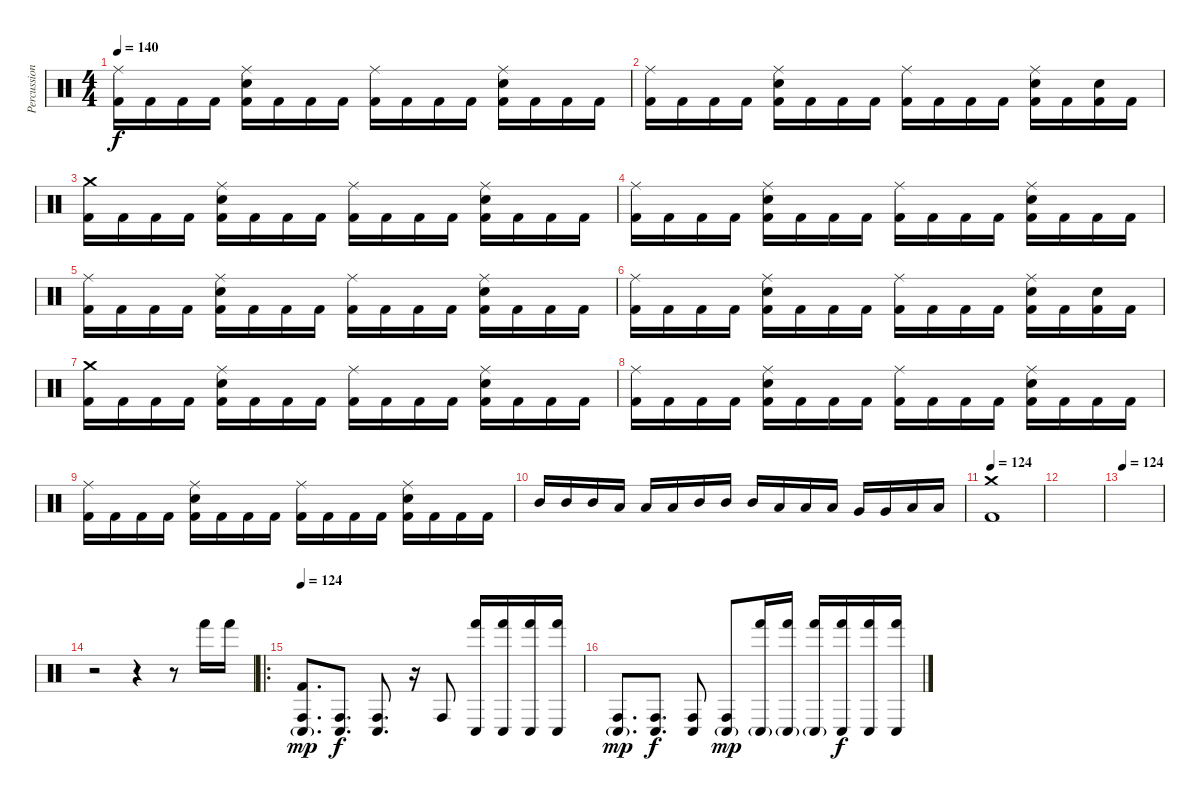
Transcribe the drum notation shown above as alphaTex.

\track ("Percussion" "Percussion") {instrument percussion}
\staff {score}
\articulation defaults
\ts (4 4)
\tempo 140
\clef neutral
\ks c
("Ride (middle)" "Kick (hit) 2").16{dy f} "Kick (hit) 2".16 "Kick (hit) 2".16 "Kick (hit) 2".16 ("Ride (middle)" "Electric Snare (hit)" "Kick (hit) 2").16 "Kick (hit) 2".16 "Kick (hit) 2".16 "Kick (hit) 2".16 ("Ride (middle)" "Kick (hit) 2").16 "Kick (hit) 2".16 "Kick (hit) 2".16 "Kick (hit) 2".16 ("Ride (middle)" "Electric Snare (hit)" "Kick (hit) 2").16 "Kick (hit) 2".16 "Kick (hit) 2".16 "Kick (hit) 2".16 |
("Ride (middle)" "Kick (hit) 2").16 "Kick (hit) 2".16 "Kick (hit) 2".16 "Kick (hit) 2".16 ("Ride (middle)" "Electric Snare (hit)" "Kick (hit) 2").16 "Kick (hit) 2".16 "Kick (hit) 2".16 "Kick (hit) 2".16 ("Ride (middle)" "Kick (hit) 2").16 "Kick (hit) 2".16 "Kick (hit) 2".16 "Kick (hit) 2".16 ("Ride (middle)" "Electric Snare (hit)" "Kick (hit) 2").16 "Kick (hit) 2".16 ("Electric Snare (hit)" "Kick (hit) 2").16 "Kick (hit) 2".16 |
("Crash medium (hit)" "Kick (hit) 2").16 "Kick (hit) 2".16 "Kick (hit) 2".16 "Kick (hit) 2".16 ("Ride (middle)" "Electric Snare (hit)" "Kick (hit) 2").16 "Kick (hit) 2".16 "Kick (hit) 2".16 "Kick (hit) 2".16 ("Ride (middle)" "Kick (hit) 2").16 "Kick (hit) 2".16 "Kick (hit) 2".16 "Kick (hit) 2".16 ("Ride (middle)" "Electric Snare (hit)" "Kick (hit) 2").16 "Kick (hit) 2".16 "Kick (hit) 2".16 "Kick (hit) 2".16 |
("Ride (middle)" "Kick (hit) 2").16 "Kick (hit) 2".16 "Kick (hit) 2".16 "Kick (hit) 2".16 ("Ride (middle)" "Electric Snare (hit)" "Kick (hit) 2").16 "Kick (hit) 2".16 "Kick (hit) 2".16 "Kick (hit) 2".16 ("Ride (middle)" "Kick (hit) 2").16 "Kick (hit) 2".16 "Kick (hit) 2".16 "Kick (hit) 2".16 ("Ride (middle)" "Electric Snare (hit)" "Kick (hit) 2").16 "Kick (hit) 2".16 "Kick (hit) 2".16 "Kick (hit) 2".16 |
("Ride (middle)" "Kick (hit) 2").16 "Kick (hit) 2".16 "Kick (hit) 2".16 "Kick (hit) 2".16 ("Ride (middle)" "Electric Snare (hit)" "Kick (hit) 2").16 "Kick (hit) 2".16 "Kick (hit) 2".16 "Kick (hit) 2".16 ("Ride (middle)" "Kick (hit) 2").16 "Kick (hit) 2".16 "Kick (hit) 2".16 "Kick (hit) 2".16 ("Ride (middle)" "Electric Snare (hit)" "Kick (hit) 2").16 "Kick (hit) 2".16 "Kick (hit) 2".16 "Kick (hit) 2".16 |
("Ride (middle)" "Kick (hit) 2").16 "Kick (hit) 2".16 "Kick (hit) 2".16 "Kick (hit) 2".16 ("Ride (middle)" "Electric Snare (hit)" "Kick (hit) 2").16 "Kick (hit) 2".16 "Kick (hit) 2".16 "Kick (hit) 2".16 ("Ride (middle)" "Kick (hit) 2").16 "Kick (hit) 2".16 "Kick (hit) 2".16 "Kick (hit) 2".16 ("Ride (middle)" "Electric Snare (hit)" "Kick (hit) 2").16 "Kick (hit) 2".16 ("Electric Snare (hit)" "Kick (hit) 2").16 "Kick (hit) 2".16 |
("Crash medium (hit)" "Kick (hit) 2").16 "Kick (hit) 2".16 "Kick (hit) 2".16 "Kick (hit) 2".16 ("Ride (middle)" "Electric Snare (hit)" "Kick (hit) 2").16 "Kick (hit) 2".16 "Kick (hit) 2".16 "Kick (hit) 2".16 ("Ride (middle)" "Kick (hit) 2").16 "Kick (hit) 2".16 "Kick (hit) 2".16 "Kick (hit) 2".16 ("Ride (middle)" "Electric Snare (hit)" "Kick (hit) 2").16 "Kick (hit) 2".16 "Kick (hit) 2".16 "Kick (hit) 2".16 |
("Ride (middle)" "Kick (hit) 2").16 "Kick (hit) 2".16 "Kick (hit) 2".16 "Kick (hit) 2".16 ("Ride (middle)" "Electric Snare (hit)" "Kick (hit) 2").16 "Kick (hit) 2".16 "Kick (hit) 2".16 "Kick (hit) 2".16 ("Ride (middle)" "Kick (hit) 2").16 "Kick (hit) 2".16 "Kick (hit) 2".16 "Kick (hit) 2".16 ("Ride (middle)" "Electric Snare (hit)" "Kick (hit) 2").16 "Kick (hit) 2".16 "Kick (hit) 2".16 "Kick (hit) 2".16 |
("Ride (middle)" "Kick (hit) 2").16 "Kick (hit) 2".16 "Kick (hit) 2".16 "Kick (hit) 2".16 ("Ride (middle)" "Electric Snare (hit)" "Kick (hit) 2").16 "Kick (hit) 2".16 "Kick (hit) 2".16 "Kick (hit) 2".16 ("Ride (middle)" "Kick (hit) 2").16 "Kick (hit) 2".16 "Kick (hit) 2".16 "Kick (hit) 2".16 ("Ride (middle)" "Electric Snare (hit)" "Kick (hit) 2").16 "Kick (hit) 2".16 "Kick (hit) 2".16 "Kick (hit) 2".16 |
"Mid Tom (hit)".16 "Mid Tom (hit)".16 "Mid Tom (hit)".16 "Low Tom (hit)".16 "Low Tom (hit)".16 "Low Tom (hit)".16 "Mid Tom (hit)".16 "Mid Tom (hit)".16 "Mid Tom (hit)".16 "Low Tom (hit)".16 "Low Tom (hit)".16 "Low Tom (hit)".16 "Very Low Tom (hit)".16 "Very Low Tom (hit)".16 "Low Floor Tom (hit)".16 "Low Floor Tom (hit)".16 |
\tempo 124
("Crash medium (hit)" "Kick (hit) 2").1 |
|
\tempo 124
|
r.2 r.4 r.8 "Hand (hit)".16 "Hand (hit)".16 |
\ro
\tempo 124
("Conga low (hit)"{g} "Conga high (hit)" "Kick (hit) 2").8{d dy mp} ("Conga low (hit)" "Conga high (hit)").8{d dy f} ("Conga low (hit)" "Conga high (hit)").8{d} r.16 "Conga high (hit)".8 ("Conga low (hit)" "Hand (hit)").16 ("Conga low (hit)" "Hand (hit)").16 ("Conga low (hit)" "Hand (hit)").16 ("Conga low (hit)" "Hand (hit)").16 |
("Conga low (hit)"{g} "Conga high (hit)").8{d dy mp} ("Conga low (hit)" "Conga high (hit)").8{d dy f} ("Conga low (hit)" "Conga high (hit)").8 ("Conga low (hit)"{g} "Conga high (hit)").8{dy mp} ("Conga low (hit)"{g} "Hand (hit)").16 ("Conga low (hit)"{g} "Hand (hit)").16 ("Conga low (hit)"{g} "Hand (hit)").16 ("Conga low (hit)" "Hand (hit)").16{dy f} ("Conga low (hit)" "Hand (hit)").16 ("Conga low (hit)" "Hand (hit)").16
